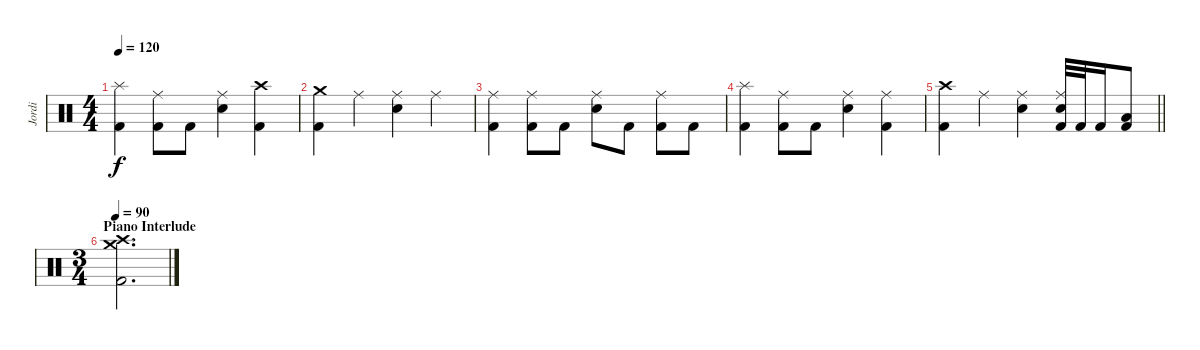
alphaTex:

\track ("Jordi" "Jordi") {instrument percussion}
\staff {score}
\articulation defaults
\ts (4 4)
\tempo 120
\clef neutral
\ks c
("Splash (hit)" "Kick (hit) 2").4{dy f} ("Ride (middle)" "Kick (hit) 2").8 "Kick (hit) 2".8 ("Ride (middle)" "Snare (hit) 2").4 ("Crash high (hit)" "Kick (hit) 2").4 |
("Crash medium (hit)" "Kick (hit) 2").4 "Ride (middle)".4 ("Ride (middle)" "Snare (hit) 2").4 "Ride (middle)".4 |
("Ride (middle)" "Kick (hit) 2").4 ("Ride (middle)" "Kick (hit) 2").8 "Kick (hit) 2".8 ("Ride (middle)" "Snare (hit) 2").8 "Kick (hit) 2".8 ("Ride (middle)" "Kick (hit) 2").8 "Kick (hit) 2".8 |
("Splash (hit)" "Kick (hit) 2").4 ("Ride (middle)" "Kick (hit) 2").8 "Kick (hit) 2".8 ("Ride (middle)" "Snare (hit) 2").4 ("Ride (middle)" "Kick (hit) 2").4 |
\barLineRight lightlight
("Crash high (hit)" "Kick (hit) 2").4 "Ride (middle)".4 ("Ride (middle)" "Snare (hit) 2").4 ("Ride (middle)" "Snare (hit) 2" "Kick (hit) 2").32 "Kick (hit) 2".32 "Kick (hit) 2".16 ("Low Floor Tom (hit)" "Kick (hit) 2").8 |
\ts (3 4)
\section ("" "Piano Interlude")
\tempo 90
("Crash medium (hit)" "Crash high (hit)" "Kick (hit) 2").2{d}
